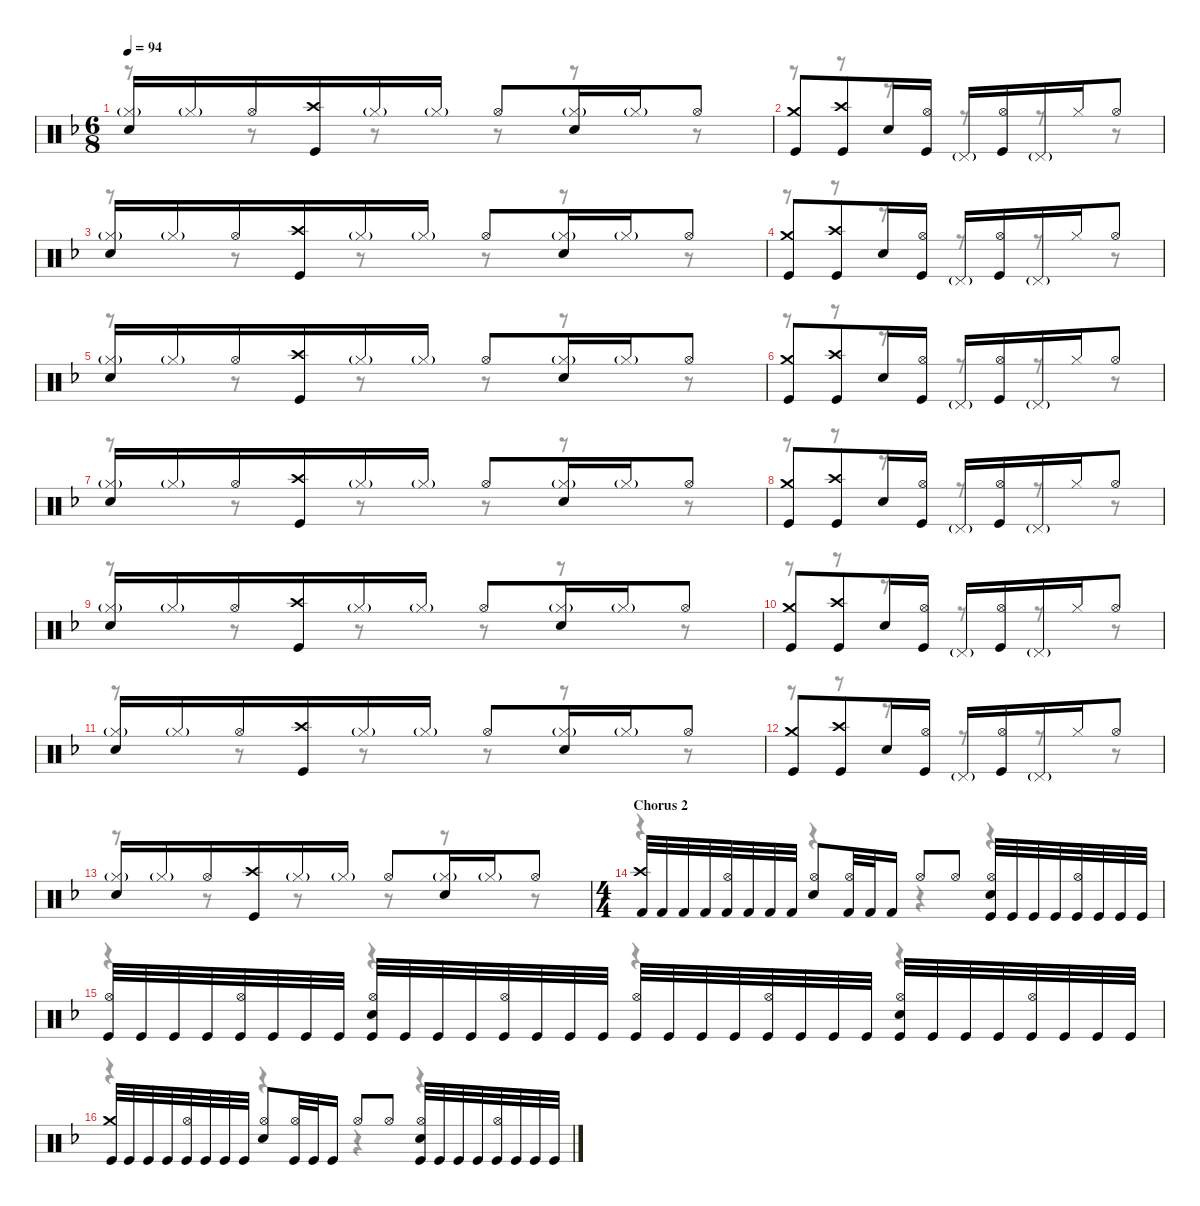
\defaultSystemsLayout 4
\hideDynamics
\bracketExtendMode nobrackets
\singleTrackTrackNamePolicy hidden
\multiTrackTrackNamePolicy hidden
\otherSystemsTrackNameOrientation horizontal
\track ("M. Lopez" "drm.") {instrument percussion}
\staff {score}
\articulation defaults
\voice
\ts (6 8)
\tempo 94
\clef neutral
\ks dminor
("Hi-Hat (closed)"{g acc forcenatural} "Snare (hit) 2"{acc forcenatural}).16{dy f beam Up} "Hi-Hat (closed)"{g acc forcenatural}.16{dy ff beam Up} "Hi-Hat (open)"{acc forcenatural}.16{dy f beam Up} ("Crash high (hit)"{acc forcenatural} "Kick (hit)"{acc forcenatural}).16{beam Up} "Hi-Hat (closed)"{g acc forcenatural}.16{dy ff beam Up} "Hi-Hat (closed)"{g acc forcenatural}.16{beam Up} "Hi-Hat (open)"{acc forcenatural}.8{dy f beam Up} ("Hi-Hat (closed)"{g acc forcenatural} "Snare (hit) 2"{acc forcenatural}).16{beam Up} "Hi-Hat (closed)"{g acc forcenatural}.16{dy ff beam Up} "Hi-Hat (open)"{acc forcenatural}.8{dy f beam Up} |
("Crash medium (hit)"{acc forcenatural} "Kick (hit)"{acc forcenatural}).8{beam Up} ("Crash high (hit)"{acc forcenatural} "Kick (hit)"{acc forcenatural}).8{beam Up} "Snare (hit) 2"{acc forcenatural}.16{beam Up} ("Hi-Hat (open)"{acc forcenatural} "Kick (hit)"{acc forcenatural}).16{beam Up} "Pedal Hi-Hat (hit)"{g acc forcenatural}.16{dy ff beam Up} ("Hi-Hat (open)"{acc forcenatural} "Kick (hit)"{acc forcenatural}).16{dy f beam Up} "Pedal Hi-Hat (hit)"{g acc forcenatural}.16{dy ff beam Up} "Hi-Hat (closed)"{acc forcenatural}.16{dy f beam Up} "Hi-Hat (open)"{acc forcenatural}.8{beam Up} |
("Hi-Hat (closed)"{g acc forcenatural} "Snare (hit) 2"{acc forcenatural}).16{beam Up} "Hi-Hat (closed)"{g acc forcenatural}.16{dy ff beam Up} "Hi-Hat (open)"{acc forcenatural}.16{dy f beam Up} ("Crash high (hit)"{acc forcenatural} "Kick (hit)"{acc forcenatural}).16{beam Up} "Hi-Hat (closed)"{g acc forcenatural}.16{dy ff beam Up} "Hi-Hat (closed)"{g acc forcenatural}.16{beam Up} "Hi-Hat (open)"{acc forcenatural}.8{dy f beam Up} ("Hi-Hat (closed)"{g acc forcenatural} "Snare (hit) 2"{acc forcenatural}).16{beam Up} "Hi-Hat (closed)"{g acc forcenatural}.16{dy ff beam Up} "Hi-Hat (open)"{acc forcenatural}.8{dy f beam Up} |
("Crash medium (hit)"{acc forcenatural} "Kick (hit)"{acc forcenatural}).8{beam Up} ("Crash high (hit)"{acc forcenatural} "Kick (hit)"{acc forcenatural}).8{beam Up} "Snare (hit) 2"{acc forcenatural}.16{beam Up} ("Hi-Hat (open)"{acc forcenatural} "Kick (hit)"{acc forcenatural}).16{beam Up} "Pedal Hi-Hat (hit)"{g acc forcenatural}.16{dy ff beam Up} ("Hi-Hat (open)"{acc forcenatural} "Kick (hit)"{acc forcenatural}).16{dy f beam Up} "Pedal Hi-Hat (hit)"{g acc forcenatural}.16{dy ff beam Up} "Hi-Hat (closed)"{acc forcenatural}.16{dy f beam Up} "Hi-Hat (open)"{acc forcenatural}.8{beam Up} |
("Hi-Hat (closed)"{g acc forcenatural} "Snare (hit) 2"{acc forcenatural}).16{beam Up} "Hi-Hat (closed)"{g acc forcenatural}.16{dy ff beam Up} "Hi-Hat (open)"{acc forcenatural}.16{dy f beam Up} ("Crash high (hit)"{acc forcenatural} "Kick (hit)"{acc forcenatural}).16{beam Up} "Hi-Hat (closed)"{g acc forcenatural}.16{dy ff beam Up} "Hi-Hat (closed)"{g acc forcenatural}.16{beam Up} "Hi-Hat (open)"{acc forcenatural}.8{dy f beam Up} ("Hi-Hat (closed)"{g acc forcenatural} "Snare (hit) 2"{acc forcenatural}).16{beam Up} "Hi-Hat (closed)"{g acc forcenatural}.16{dy ff beam Up} "Hi-Hat (open)"{acc forcenatural}.8{dy f beam Up} |
("Crash medium (hit)"{acc forcenatural} "Kick (hit)"{acc forcenatural}).8{beam Up} ("Crash high (hit)"{acc forcenatural} "Kick (hit)"{acc forcenatural}).8{beam Up} "Snare (hit) 2"{acc forcenatural}.16{beam Up} ("Hi-Hat (open)"{acc forcenatural} "Kick (hit)"{acc forcenatural}).16{beam Up} "Pedal Hi-Hat (hit)"{g acc forcenatural}.16{dy ff beam Up} ("Hi-Hat (open)"{acc forcenatural} "Kick (hit)"{acc forcenatural}).16{dy f beam Up} "Pedal Hi-Hat (hit)"{g acc forcenatural}.16{dy ff beam Up} "Hi-Hat (closed)"{acc forcenatural}.16{dy f beam Up} "Hi-Hat (open)"{acc forcenatural}.8{beam Up} |
("Hi-Hat (closed)"{g acc forcenatural} "Snare (hit) 2"{acc forcenatural}).16{beam Up} "Hi-Hat (closed)"{g acc forcenatural}.16{dy ff beam Up} "Hi-Hat (open)"{acc forcenatural}.16{dy f beam Up} ("Crash high (hit)"{acc forcenatural} "Kick (hit)"{acc forcenatural}).16{beam Up} "Hi-Hat (closed)"{g acc forcenatural}.16{dy ff beam Up} "Hi-Hat (closed)"{g acc forcenatural}.16{beam Up} "Hi-Hat (open)"{acc forcenatural}.8{dy f beam Up} ("Hi-Hat (closed)"{g acc forcenatural} "Snare (hit) 2"{acc forcenatural}).16{beam Up} "Hi-Hat (closed)"{g acc forcenatural}.16{dy ff beam Up} "Hi-Hat (open)"{acc forcenatural}.8{dy f beam Up} |
("Crash medium (hit)"{acc forcenatural} "Kick (hit)"{acc forcenatural}).8{beam Up} ("Crash high (hit)"{acc forcenatural} "Kick (hit)"{acc forcenatural}).8{beam Up} "Snare (hit) 2"{acc forcenatural}.16{beam Up} ("Hi-Hat (open)"{acc forcenatural} "Kick (hit)"{acc forcenatural}).16{beam Up} "Pedal Hi-Hat (hit)"{g acc forcenatural}.16{dy ff beam Up} ("Hi-Hat (open)"{acc forcenatural} "Kick (hit)"{acc forcenatural}).16{dy f beam Up} "Pedal Hi-Hat (hit)"{g acc forcenatural}.16{dy ff beam Up} "Hi-Hat (closed)"{acc forcenatural}.16{dy f beam Up} "Hi-Hat (open)"{acc forcenatural}.8{beam Up} |
("Hi-Hat (closed)"{g acc forcenatural} "Snare (hit) 2"{acc forcenatural}).16{beam Up} "Hi-Hat (closed)"{g acc forcenatural}.16{dy ff beam Up} "Hi-Hat (open)"{acc forcenatural}.16{dy f beam Up} ("Crash high (hit)"{acc forcenatural} "Kick (hit)"{acc forcenatural}).16{beam Up} "Hi-Hat (closed)"{g acc forcenatural}.16{dy ff beam Up} "Hi-Hat (closed)"{g acc forcenatural}.16{beam Up} "Hi-Hat (open)"{acc forcenatural}.8{dy f beam Up} ("Hi-Hat (closed)"{g acc forcenatural} "Snare (hit) 2"{acc forcenatural}).16{beam Up} "Hi-Hat (closed)"{g acc forcenatural}.16{dy ff beam Up} "Hi-Hat (open)"{acc forcenatural}.8{dy f beam Up} |
("Crash medium (hit)"{acc forcenatural} "Kick (hit)"{acc forcenatural}).8{beam Up} ("Crash high (hit)"{acc forcenatural} "Kick (hit)"{acc forcenatural}).8{beam Up} "Snare (hit) 2"{acc forcenatural}.16{beam Up} ("Hi-Hat (open)"{acc forcenatural} "Kick (hit)"{acc forcenatural}).16{beam Up} "Pedal Hi-Hat (hit)"{g acc forcenatural}.16{dy ff beam Up} ("Hi-Hat (open)"{acc forcenatural} "Kick (hit)"{acc forcenatural}).16{dy f beam Up} "Pedal Hi-Hat (hit)"{g acc forcenatural}.16{dy ff beam Up} "Hi-Hat (closed)"{acc forcenatural}.16{dy f beam Up} "Hi-Hat (open)"{acc forcenatural}.8{beam Up} |
("Hi-Hat (closed)"{g acc forcenatural} "Snare (hit) 2"{acc forcenatural}).16{beam Up} "Hi-Hat (closed)"{g acc forcenatural}.16{dy ff beam Up} "Hi-Hat (open)"{acc forcenatural}.16{dy f beam Up} ("Crash high (hit)"{acc forcenatural} "Kick (hit)"{acc forcenatural}).16{beam Up} "Hi-Hat (closed)"{g acc forcenatural}.16{dy ff beam Up} "Hi-Hat (closed)"{g acc forcenatural}.16{beam Up} "Hi-Hat (open)"{acc forcenatural}.8{dy f beam Up} ("Hi-Hat (closed)"{g acc forcenatural} "Snare (hit) 2"{acc forcenatural}).16{beam Up} "Hi-Hat (closed)"{g acc forcenatural}.16{dy ff beam Up} "Hi-Hat (open)"{acc forcenatural}.8{dy f beam Up} |
("Crash medium (hit)"{acc forcenatural} "Kick (hit)"{acc forcenatural}).8{beam Up} ("Crash high (hit)"{acc forcenatural} "Kick (hit)"{acc forcenatural}).8{beam Up} "Snare (hit) 2"{acc forcenatural}.16{beam Up} ("Hi-Hat (open)"{acc forcenatural} "Kick (hit)"{acc forcenatural}).16{beam Up} "Pedal Hi-Hat (hit)"{g acc forcenatural}.16{dy ff beam Up} ("Hi-Hat (open)"{acc forcenatural} "Kick (hit)"{acc forcenatural}).16{dy f beam Up} "Pedal Hi-Hat (hit)"{g acc forcenatural}.16{dy ff beam Up} "Hi-Hat (closed)"{acc forcenatural}.16{dy f beam Up} "Hi-Hat (open)"{acc forcenatural}.8{beam Up} |
("Hi-Hat (closed)"{g acc forcenatural} "Snare (hit) 2"{acc forcenatural}).16{beam Up} "Hi-Hat (closed)"{g acc forcenatural}.16{dy ff beam Up} "Hi-Hat (open)"{acc forcenatural}.16{dy f beam Up} ("Crash high (hit)"{acc forcenatural} "Kick (hit)"{acc forcenatural}).16{beam Up} "Hi-Hat (closed)"{g acc forcenatural}.16{dy ff beam Up} "Hi-Hat (closed)"{g acc forcenatural}.16{beam Up} "Hi-Hat (open)"{acc forcenatural}.8{dy f beam Up} ("Hi-Hat (closed)"{g acc forcenatural} "Snare (hit) 2"{acc forcenatural}).16{beam Up} "Hi-Hat (closed)"{g acc forcenatural}.16{dy ff beam Up} "Hi-Hat (open)"{acc forcenatural}.8{dy f beam Up} |
\ts (4 4)
\beaming (8 2 2 2 2)
\section ("" "Chorus 2")
("Crash high (hit)"{acc forcenatural} "Kick (hit) 2"{acc forcenatural}).32{beam Up} "Kick (hit) 2"{acc forcenatural}.32{beam Up} "Kick (hit) 2"{acc forcenatural}.32{beam Up} "Kick (hit) 2"{acc forcenatural}.32{beam Up} ("Hi-Hat (open)"{acc forcenatural} "Kick (hit) 2"{acc forcenatural}).32{beam Up} "Kick (hit) 2"{acc forcenatural}.32{beam Up} "Kick (hit) 2"{acc forcenatural}.32{beam Up} "Kick (hit) 2"{acc forcenatural}.32{beam Up} ("Hi-Hat (open)"{acc forcenatural} "Snare (hit) 2"{acc forcenatural}).8{beam Up} ("Hi-Hat (open)"{acc forcenatural} "Kick (hit) 2"{acc forcenatural}).32{beam Up} "Kick (hit) 2"{acc forcenatural}.32{beam Up} "Kick (hit) 2"{acc forcenatural}.16{beam Up} "Hi-Hat (open)"{acc forcenatural}.8{beam Up} "Hi-Hat (open)"{acc forcenatural}.8{beam Up} ("Hi-Hat (open)"{acc forcenatural} "Snare (hit) 2"{acc forcenatural} "Kick (hit)"{acc forcenatural}).32{beam Up} "Kick (hit)"{acc forcenatural}.32{beam Up} "Kick (hit)"{acc forcenatural}.32{beam Up} "Kick (hit)"{acc forcenatural}.32{beam Up} ("Hi-Hat (open)"{acc forcenatural} "Kick (hit)"{acc forcenatural}).32{beam Up} "Kick (hit)"{acc forcenatural}.32{beam Up} "Kick (hit)"{acc forcenatural}.32{beam Up} "Kick (hit)"{acc forcenatural}.32{beam Up} |
("Hi-Hat (open)"{acc forcenatural} "Kick (hit)"{acc forcenatural}).32{beam Up} "Kick (hit)"{acc forcenatural}.32{beam Up} "Kick (hit)"{acc forcenatural}.32{beam Up} "Kick (hit)"{acc forcenatural}.32{beam Up} ("Hi-Hat (open)"{acc forcenatural} "Kick (hit)"{acc forcenatural}).32{beam Up} "Kick (hit)"{acc forcenatural}.32{beam Up} "Kick (hit)"{acc forcenatural}.32{beam Up} "Kick (hit)"{acc forcenatural}.32{beam Up} ("Hi-Hat (open)"{acc forcenatural} "Snare (hit) 2"{acc forcenatural} "Kick (hit)"{acc forcenatural}).32{beam Up} "Kick (hit)"{acc forcenatural}.32{beam Up} "Kick (hit)"{acc forcenatural}.32{beam Up} "Kick (hit)"{acc forcenatural}.32{beam Up} ("Hi-Hat (open)"{acc forcenatural} "Kick (hit)"{acc forcenatural}).32{beam Up} "Kick (hit)"{acc forcenatural}.32{beam Up} "Kick (hit)"{acc forcenatural}.32{beam Up} "Kick (hit)"{acc forcenatural}.32{beam Up} ("Hi-Hat (open)"{acc forcenatural} "Kick (hit)"{acc forcenatural}).32{beam Up} "Kick (hit)"{acc forcenatural}.32{beam Up} "Kick (hit)"{acc forcenatural}.32{beam Up} "Kick (hit)"{acc forcenatural}.32{beam Up} ("Hi-Hat (open)"{acc forcenatural} "Kick (hit)"{acc forcenatural}).32{beam Up} "Kick (hit)"{acc forcenatural}.32{beam Up} "Kick (hit)"{acc forcenatural}.32{beam Up} "Kick (hit)"{acc forcenatural}.32{beam Up} ("Hi-Hat (open)"{acc forcenatural} "Snare (hit) 2"{acc forcenatural} "Kick (hit)"{acc forcenatural}).32{beam Up} "Kick (hit)"{acc forcenatural}.32{beam Up} "Kick (hit)"{acc forcenatural}.32{beam Up} "Kick (hit)"{acc forcenatural}.32{beam Up} ("Hi-Hat (open)"{acc forcenatural} "Kick (hit)"{acc forcenatural}).32{beam Up} "Kick (hit)"{acc forcenatural}.32{beam Up} "Kick (hit)"{acc forcenatural}.32{beam Up} "Kick (hit)"{acc forcenatural}.32{beam Up} |
("Crash medium (hit)"{acc forcenatural} "Kick (hit)"{acc forcenatural}).32{beam Up} "Kick (hit)"{acc forcenatural}.32{beam Up} "Kick (hit)"{acc forcenatural}.32{beam Up} "Kick (hit)"{acc forcenatural}.32{beam Up} ("Hi-Hat (open)"{acc forcenatural} "Kick (hit)"{acc forcenatural}).32{beam Up} "Kick (hit)"{acc forcenatural}.32{beam Up} "Kick (hit)"{acc forcenatural}.32{beam Up} "Kick (hit)"{acc forcenatural}.32{beam Up} ("Hi-Hat (open)"{acc forcenatural} "Snare (hit) 2"{acc forcenatural}).8{beam Up} ("Hi-Hat (open)"{acc forcenatural} "Kick (hit)"{acc forcenatural}).32{beam Up} "Kick (hit)"{acc forcenatural}.32{beam Up} "Kick (hit)"{acc forcenatural}.16{beam Up} "Hi-Hat (open)"{acc forcenatural}.8{beam Up} "Hi-Hat (open)"{acc forcenatural}.8{beam Up} ("Hi-Hat (open)"{acc forcenatural} "Snare (hit) 2"{acc forcenatural} "Kick (hit)"{acc forcenatural}).32{beam Up} "Kick (hit)"{acc forcenatural}.32{beam Up} "Kick (hit)"{acc forcenatural}.32{beam Up} "Kick (hit)"{acc forcenatural}.32{beam Up} ("Hi-Hat (open)"{acc forcenatural} "Kick (hit)"{acc forcenatural}).32{beam Up} "Kick (hit)"{acc forcenatural}.32{beam Up} "Kick (hit)"{acc forcenatural}.32{beam Up} "Kick (hit)"{acc forcenatural}.32{beam Up}
\voice
\clef neutral
\ottava regular
\simile none
\ks dminor
r.8{dy mf beam Down} r.8{beam Down} r.8{beam Down} r.8{beam Down} r.8{beam Down} r.8{beam Down} |
r.8{beam Down} r.8{beam Down} r.8{beam Down} r.8{beam Down} r.8{beam Down} r.8{beam Down} |
r.8{beam Down} r.8{beam Down} r.8{beam Down} r.8{beam Down} r.8{beam Down} r.8{beam Down} |
r.8{beam Down} r.8{beam Down} r.8{beam Down} r.8{beam Down} r.8{beam Down} r.8{beam Down} |
r.8{beam Down} r.8{beam Down} r.8{beam Down} r.8{beam Down} r.8{beam Down} r.8{beam Down} |
r.8{beam Down} r.8{beam Down} r.8{beam Down} r.8{beam Down} r.8{beam Down} r.8{beam Down} |
r.8{beam Down} r.8{beam Down} r.8{beam Down} r.8{beam Down} r.8{beam Down} r.8{beam Down} |
r.8{beam Down} r.8{beam Down} r.8{beam Down} r.8{beam Down} r.8{beam Down} r.8{beam Down} |
r.8{beam Down} r.8{beam Down} r.8{beam Down} r.8{beam Down} r.8{beam Down} r.8{beam Down} |
r.8{beam Down} r.8{beam Down} r.8{beam Down} r.8{beam Down} r.8{beam Down} r.8{beam Down} |
r.8{beam Down} r.8{beam Down} r.8{beam Down} r.8{beam Down} r.8{beam Down} r.8{beam Down} |
r.8{beam Down} r.8{beam Down} r.8{beam Down} r.8{beam Down} r.8{beam Down} r.8{beam Down} |
r.8{beam Down} r.8{beam Down} r.8{beam Down} r.8{beam Down} r.8{beam Down} r.8{beam Down} |
r.4{beam Down} r.4{beam Down} r.4{beam Down} r.4{beam Down} |
r.4{beam Down} r.4{beam Down} r.4{beam Down} r.4{beam Down} |
r.4{beam Down} r.4{beam Down} r.4{beam Down} r.4{beam Down}
